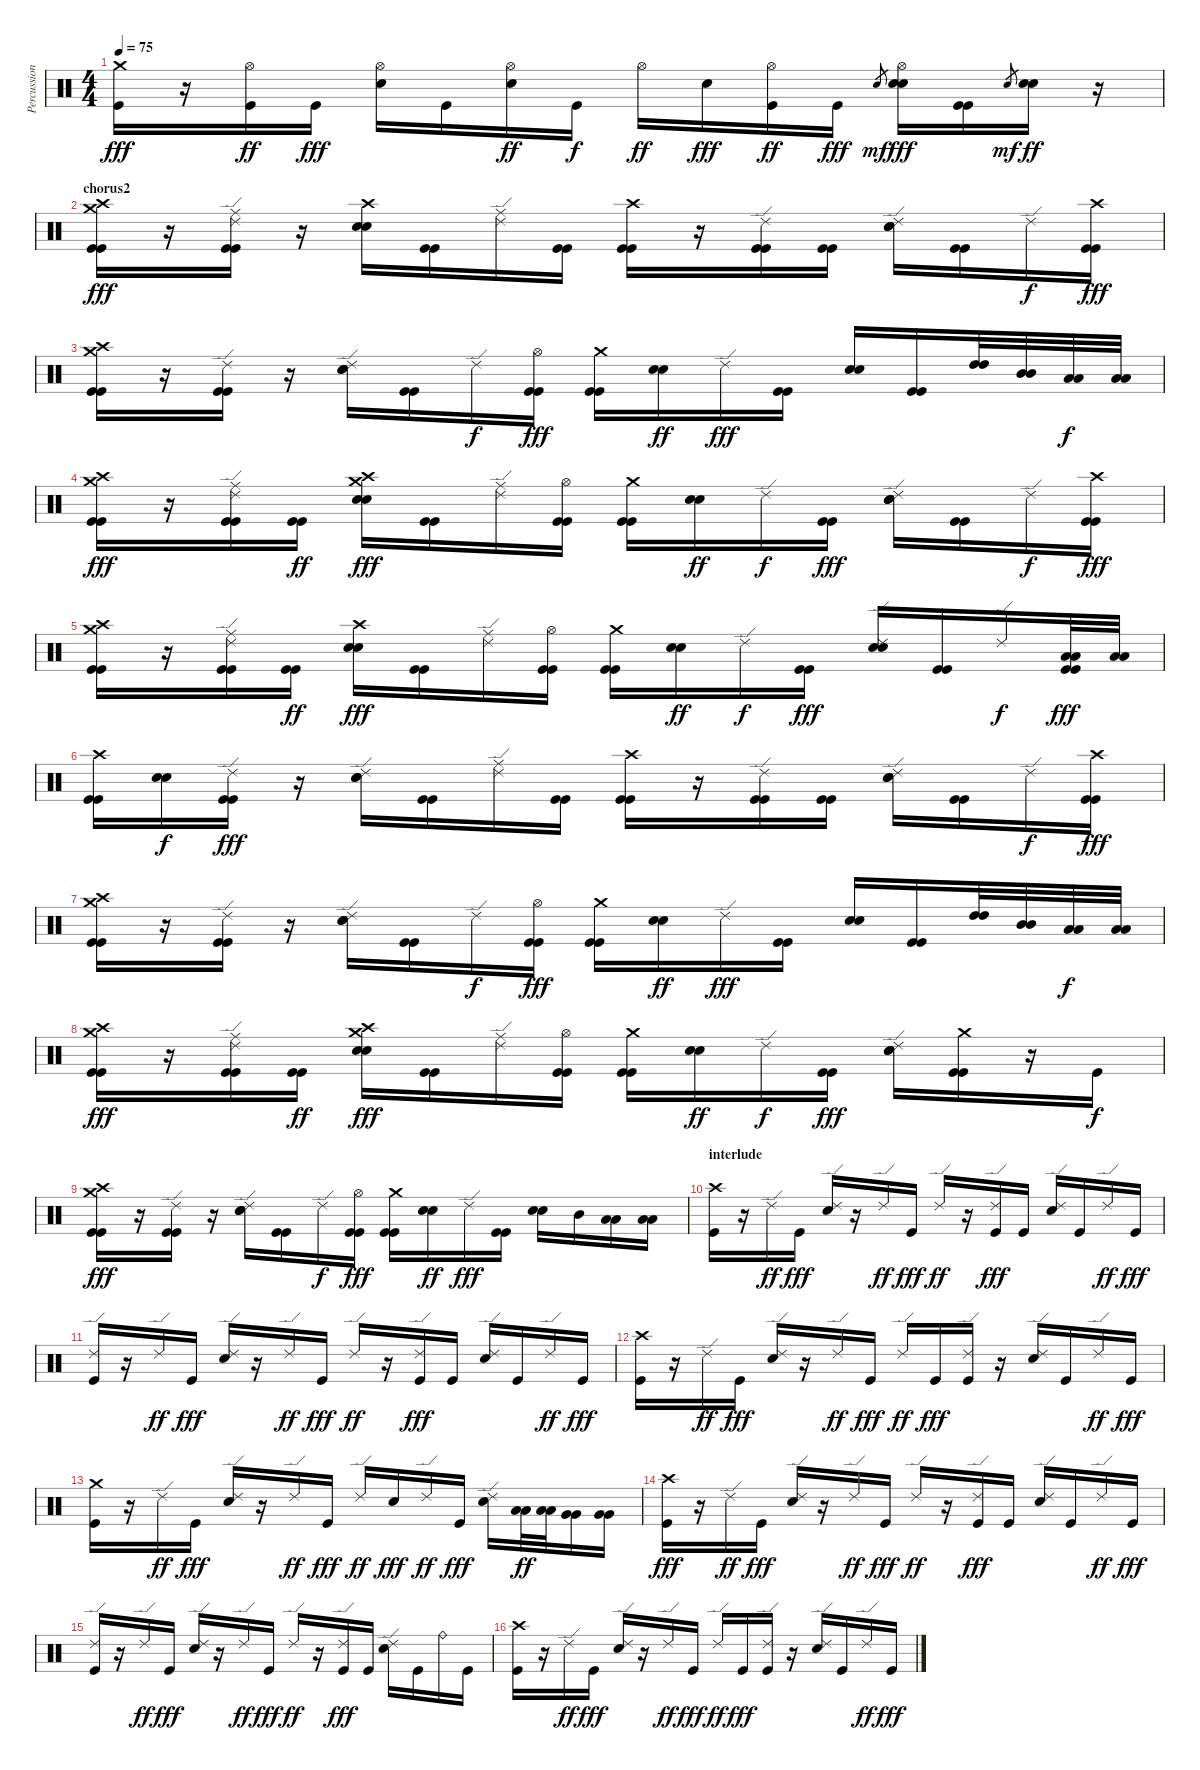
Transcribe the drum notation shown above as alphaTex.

\track ("Percussion" "Percussion") {instrument percussion}
\staff {score}
\articulation defaults
\ts (4 4)
\tempo 75
\clef neutral
\ks c
("Crash medium (hit)" "Kick (hit)").16{dy fff} r.16 ("Hi-Hat (open)" "Kick (hit)").16{dy ff} "Kick (hit)".16{dy fff} ("Hi-Hat (open)" "Electric Snare (hit)").16 "Kick (hit)".16 ("Hi-Hat (open)" "Electric Snare (hit)").16{dy ff} "Kick (hit)".16{dy f} "Hi-Hat (open)".16{dy ff} "Electric Snare (hit)".16{dy fff} ("Hi-Hat (open)" "Kick (hit)").16{dy ff} "Kick (hit)".16{dy fff} "Electric Snare (hit)".8{gr dy mf} ("Hi-Hat (open)" "Electric Snare (hit)" "Electric Snare (hit)").16{dy fff} ("Kick (hit)" "Kick (hit)").16 "Electric Snare (hit)".8{gr dy mf} ("Electric Snare (hit)" "Electric Snare (hit)").16{dy ff} r.16 |
\section ("" "chorus2")
("Crash medium (hit)" "Crash high (hit)" "Kick (hit)" "Kick (hit)").16{dy fff} r.16 ("Ride (middle)" "Ride (edge) 2" "Kick (hit)" "Kick (hit)").16 r.16 ("Crash high (hit)" "Electric Snare (hit)" "Electric Snare (hit)").16 ("Kick (hit)" "Kick (hit)").16 ("Ride (middle)" "Ride (edge) 2").16 ("Kick (hit)" "Kick (hit)").16 ("Crash high (hit)" "Kick (hit)" "Kick (hit)").16 r.16 ("Ride (edge) 2" "Kick (hit)" "Kick (hit)").16 ("Kick (hit)" "Kick (hit)").16 ("Ride (edge) 2" "Electric Snare (hit)" "Electric Snare (hit)").16 ("Kick (hit)" "Kick (hit)").16 "Ride (edge) 2".16{dy f} ("Crash high (hit)" "Kick (hit)" "Kick (hit)").16{dy fff} |
("Crash medium (hit)" "Crash high (hit)" "Kick (hit)" "Kick (hit)").16 r.16 ("Ride (edge) 2" "Kick (hit)" "Kick (hit)").16 r.16 ("Ride (edge) 2" "Electric Snare (hit)" "Electric Snare (hit)").16 ("Kick (hit)" "Kick (hit)").16 "Ride (edge) 2".16{dy f} ("Hi-Hat (open)" "Kick (hit)" "Kick (hit)").16{dy fff} ("Crash medium (hit)" "Kick (hit)" "Kick (hit)").16 ("Electric Snare (hit)" "Electric Snare (hit)").16{dy ff} "Ride (edge) 2".16{dy fff} ("Kick (hit)" "Kick (hit)").16 ("Electric Snare (hit)" "Electric Snare (hit)").16 ("Kick (hit)" "Kick (hit)").16 ("High Tom (hit)" "High Tom (hit)").32 ("Mid Tom (hit)" "Mid Tom (hit)").32 ("Low Tom (hit)" "Low Tom (hit)").32{dy f} ("Low Tom (hit)" "Low Tom (hit)").32 |
("Crash medium (hit)" "Crash high (hit)" "Kick (hit)" "Kick (hit)").16{dy fff} r.16 ("Ride (middle)" "Ride (edge) 2" "Kick (hit)" "Kick (hit)").16 ("Kick (hit)" "Kick (hit)").16{dy ff} ("Crash high (hit)" "Crash medium (hit)" "Electric Snare (hit)" "Electric Snare (hit)").16{dy fff} ("Kick (hit)" "Kick (hit)").16 ("Ride (middle)" "Ride (edge) 2").16 ("Hi-Hat (open)" "Kick (hit)" "Kick (hit)").16 ("Crash medium (hit)" "Kick (hit)" "Kick (hit)").16 ("Electric Snare (hit)" "Electric Snare (hit)").16{dy ff} "Ride (edge) 2".16{dy f} ("Kick (hit)" "Kick (hit)").16{dy fff} ("Ride (edge) 2" "Electric Snare (hit)" "Electric Snare (hit)").16 ("Kick (hit)" "Kick (hit)").16 "Ride (edge) 2".16{dy f} ("Crash high (hit)" "Kick (hit)" "Kick (hit)").16{dy fff} |
("Crash medium (hit)" "Crash high (hit)" "Kick (hit)" "Kick (hit)").16 r.16 ("Ride (middle)" "Ride (edge) 2" "Kick (hit)" "Kick (hit)").16 ("Kick (hit)" "Kick (hit)").16{dy ff} ("Crash high (hit)" "Electric Snare (hit)" "Electric Snare (hit)").16{dy fff} ("Kick (hit)" "Kick (hit)").16 ("Ride (middle)" "Ride (edge) 2").16 ("Hi-Hat (open)" "Kick (hit)" "Kick (hit)").16 ("Crash medium (hit)" "Kick (hit)" "Kick (hit)").16 ("Electric Snare (hit)" "Electric Snare (hit)").16{dy ff} "Ride (edge) 2".16{dy f} ("Kick (hit)" "Kick (hit)").16{dy fff} ("Ride (edge) 2" "Electric Snare (hit)" "Electric Snare (hit)").16 ("Kick (hit)" "Kick (hit)").16 "Ride (edge) 2".16{dy f} ("Low Tom (hit)" "Low Tom (hit)" "Kick (hit)" "Kick (hit)").32{dy fff} ("Low Tom (hit)" "Low Tom (hit)").32 |
("Crash high (hit)" "Kick (hit)" "Kick (hit)").16 ("Electric Snare (hit)" "Electric Snare (hit)").16{dy f} ("Ride (edge) 2" "Kick (hit)" "Kick (hit)").16{dy fff} r.16 ("Ride (edge) 2" "Electric Snare (hit)" "Electric Snare (hit)").16 ("Kick (hit)" "Kick (hit)").16 ("Ride (middle)" "Ride (edge) 2").16 ("Kick (hit)" "Kick (hit)").16 ("Crash high (hit)" "Kick (hit)" "Kick (hit)").16 r.16 ("Ride (edge) 2" "Kick (hit)" "Kick (hit)").16 ("Kick (hit)" "Kick (hit)").16 ("Ride (edge) 2" "Electric Snare (hit)" "Electric Snare (hit)").16 ("Kick (hit)" "Kick (hit)").16 "Ride (edge) 2".16{dy f} ("Crash high (hit)" "Kick (hit)" "Kick (hit)").16{dy fff} |
("Crash medium (hit)" "Crash high (hit)" "Kick (hit)" "Kick (hit)").16 r.16 ("Ride (edge) 2" "Kick (hit)" "Kick (hit)").16 r.16 ("Ride (edge) 2" "Electric Snare (hit)" "Electric Snare (hit)").16 ("Kick (hit)" "Kick (hit)").16 "Ride (edge) 2".16{dy f} ("Hi-Hat (open)" "Kick (hit)" "Kick (hit)").16{dy fff} ("Crash medium (hit)" "Kick (hit)" "Kick (hit)").16 ("Electric Snare (hit)" "Electric Snare (hit)").16{dy ff} "Ride (edge) 2".16{dy fff} ("Kick (hit)" "Kick (hit)").16 ("Electric Snare (hit)" "Electric Snare (hit)").16 ("Kick (hit)" "Kick (hit)").16 ("High Tom (hit)" "High Tom (hit)").32 ("Mid Tom (hit)" "Mid Tom (hit)").32 ("Low Tom (hit)" "Low Tom (hit)").32{dy f} ("Low Tom (hit)" "Low Tom (hit)").32 |
("Crash medium (hit)" "Crash high (hit)" "Kick (hit)" "Kick (hit)").16{dy fff} r.16 ("Ride (middle)" "Ride (edge) 2" "Kick (hit)" "Kick (hit)").16 ("Kick (hit)" "Kick (hit)").16{dy ff} ("Crash high (hit)" "Crash medium (hit)" "Electric Snare (hit)" "Electric Snare (hit)").16{dy fff} ("Kick (hit)" "Kick (hit)").16 ("Ride (middle)" "Ride (edge) 2").16 ("Hi-Hat (open)" "Kick (hit)" "Kick (hit)").16 ("Crash medium (hit)" "Kick (hit)" "Kick (hit)").16 ("Electric Snare (hit)" "Electric Snare (hit)").16{dy ff} "Ride (edge) 2".16{dy f} ("Kick (hit)" "Kick (hit)").16{dy fff} ("Ride (edge) 2" "Electric Snare (hit)" "Electric Snare (hit)").16 ("Crash medium (hit)" "Kick (hit)" "Kick (hit)").16 r.16 "Kick (hit)".16{dy f} |
("Crash medium (hit)" "Crash high (hit)" "Kick (hit)" "Kick (hit)").16{dy fff} r.16 ("Ride (edge) 2" "Kick (hit)" "Kick (hit)").16 r.16 ("Ride (edge) 2" "Electric Snare (hit)" "Electric Snare (hit)").16 ("Kick (hit)" "Kick (hit)").16 "Ride (edge) 2".16{dy f} ("Hi-Hat (open)" "Kick (hit)" "Kick (hit)").16{dy fff} ("Crash medium (hit)" "Kick (hit)" "Kick (hit)").16 ("Electric Snare (hit)" "Electric Snare (hit)").16{dy ff} "Ride (edge) 2".16{dy fff} ("Kick (hit)" "Kick (hit)").16 ("Electric Snare (hit)" "Electric Snare (hit)").16 "Mid Tom (hit)".16 ("Low Floor Tom (hit)" "Low Floor Tom (hit)").16 ("Low Floor Tom (hit)" "Low Floor Tom (hit)").16 |
\section ("" "interlude")
("Crash high (hit)" "Kick (hit)").16 r.16 "Ride (edge) 2".16{dy ff} "Kick (hit)".16{dy fff} ("Ride (edge) 2" "Electric Snare (hit)").16 r.16 "Ride (edge) 2".16{dy ff} "Kick (hit)".16{dy fff} "Ride (edge) 2".16{dy ff} r.16 ("Ride (edge) 2" "Kick (hit)").16{dy fff} "Kick (hit)".16 ("Ride (edge) 2" "Electric Snare (hit)").16 "Kick (hit)".16 "Ride (edge) 2".16{dy ff} "Kick (hit)".16{dy fff} |
("Ride (edge) 2" "Kick (hit)").16 r.16 "Ride (edge) 2".16{dy ff} "Kick (hit)".16{dy fff} ("Ride (edge) 2" "Electric Snare (hit)").16 r.16 "Ride (edge) 2".16{dy ff} "Kick (hit)".16{dy fff} "Ride (edge) 2".16{dy ff} r.16 ("Ride (edge) 2" "Kick (hit)").16{dy fff} "Kick (hit)".16 ("Ride (edge) 2" "Electric Snare (hit)").16 "Kick (hit)".16 "Ride (edge) 2".16{dy ff} "Kick (hit)".16{dy fff} |
("Crash high (hit)" "Kick (hit)").16 r.16 "Ride (edge) 2".16{dy ff} "Kick (hit)".16{dy fff} ("Ride (edge) 2" "Electric Snare (hit)").16 r.16 "Ride (edge) 2".16{dy ff} "Kick (hit)".16{dy fff} "Ride (edge) 2".16{dy ff} "Kick (hit)".16{dy fff} ("Ride (edge) 2" "Kick (hit)").16 r.16 ("Ride (edge) 2" "Electric Snare (hit)").16 "Kick (hit)".16 "Ride (edge) 2".16{dy ff} "Kick (hit)".16{dy fff} |
("Crash medium (hit)" "Kick (hit)").16 r.16 "Ride (edge) 2".16{dy ff} "Kick (hit)".16{dy fff} ("Ride (edge) 2" "Electric Snare (hit)").16 r.16 "Ride (edge) 2".16{dy ff} "Kick (hit)".16{dy fff} "Ride (edge) 2".16{dy ff} "Electric Snare (hit)".16{dy fff} "Ride (edge) 2".16{dy ff} "Kick (hit)".16{dy fff} ("Ride (edge) 2" "Electric Snare (hit)").16 ("Low Tom (hit)" "Low Tom (hit)").32{dy ff} ("Low Tom (hit)" "Low Tom (hit)").32 ("Very Low Tom (hit)" "Very Low Tom (hit)").16 ("Very Low Tom (hit)" "Very Low Tom (hit)").16 |
("Crash high (hit)" "Kick (hit)").16{dy fff} r.16 "Ride (edge) 2".16{dy ff} "Kick (hit)".16{dy fff} ("Ride (edge) 2" "Electric Snare (hit)").16 r.16 "Ride (edge) 2".16{dy ff} "Kick (hit)".16{dy fff} "Ride (edge) 2".16{dy ff} r.16 ("Ride (edge) 2" "Kick (hit)").16{dy fff} "Kick (hit)".16 ("Ride (edge) 2" "Electric Snare (hit)").16 "Kick (hit)".16 "Ride (edge) 2".16{dy ff} "Kick (hit)".16{dy fff} |
("Ride (edge) 2" "Kick (hit)").16 r.16 "Ride (edge) 2".16{dy ff} "Kick (hit)".16{dy fff} ("Ride (edge) 2" "Electric Snare (hit)").16 r.16 "Ride (edge) 2".16{dy ff} "Kick (hit)".16{dy fff} "Ride (edge) 2".16{dy ff} r.16 ("Ride (edge) 2" "Kick (hit)").16{dy fff} "Kick (hit)".16 ("Ride (edge) 2" "Electric Snare (hit)").16 "Kick (hit)".16 "Ride (bell)".16 "Kick (hit)".16 |
("Crash high (hit)" "Kick (hit)").16 r.16 "Ride (edge) 2".16{dy ff} "Kick (hit)".16{dy fff} ("Ride (edge) 2" "Electric Snare (hit)").16 r.16 "Ride (edge) 2".16{dy ff} "Kick (hit)".16{dy fff} "Ride (edge) 2".16{dy ff} "Kick (hit)".16{dy fff} ("Ride (edge) 2" "Kick (hit)").16 r.16 ("Ride (edge) 2" "Electric Snare (hit)").16 "Kick (hit)".16 "Ride (edge) 2".16{dy ff} "Kick (hit)".16{dy fff}
